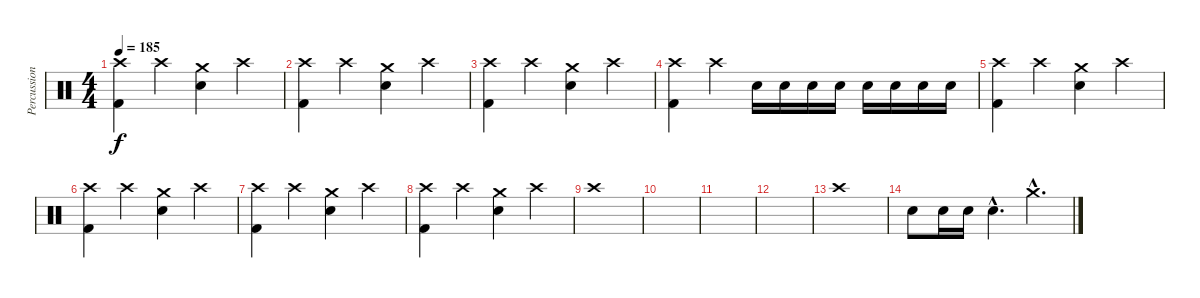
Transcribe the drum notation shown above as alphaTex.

\track ("Percussion" "Percussion") {instrument percussion}
\staff {score}
\articulation defaults
\ts (4 4)
\tempo 185
\clef neutral
\ks c
("Kick (hit) 2" "Crash high (hit)").4{dy f} "Crash high (hit)".4 ("Electric Snare (hit)" "Crash medium (hit)").4 "Crash high (hit)".4 |
("Kick (hit) 2" "Crash high (hit)").4 "Crash high (hit)".4 ("Electric Snare (hit)" "Crash medium (hit)").4 "Crash high (hit)".4 |
("Kick (hit) 2" "Crash high (hit)").4 "Crash high (hit)".4 ("Electric Snare (hit)" "Crash medium (hit)").4 "Crash high (hit)".4 |
("Kick (hit) 2" "Crash high (hit)").4 "Crash high (hit)".4 "Electric Snare (hit)".16 "Electric Snare (hit)".16 "Electric Snare (hit)".16 "Electric Snare (hit)".16 "Electric Snare (hit)".16 "Electric Snare (hit)".16 "Electric Snare (hit)".16 "Electric Snare (hit)".16 |
("Kick (hit) 2" "Crash high (hit)").4 "Crash high (hit)".4 ("Electric Snare (hit)" "Crash medium (hit)").4 "Crash high (hit)".4 |
("Kick (hit) 2" "Crash high (hit)").4 "Crash high (hit)".4 ("Electric Snare (hit)" "Crash medium (hit)").4 "Crash high (hit)".4 |
("Kick (hit) 2" "Crash high (hit)").4 "Crash high (hit)".4 ("Electric Snare (hit)" "Crash medium (hit)").4 "Crash high (hit)".4 |
("Kick (hit) 2" "Crash high (hit)").4 "Crash high (hit)".4 ("Electric Snare (hit)" "Crash medium (hit)").4 "Crash high (hit)".4 |
"Crash high (hit)".1 |
|
|
|
"Crash high (hit)".1 |
"Electric Snare (hit)".8 "Electric Snare (hit)".16 "Electric Snare (hit)".16 "Electric Snare (hit)"{hac}.4{d} "Crash medium (hit)"{hac}.4{d}
